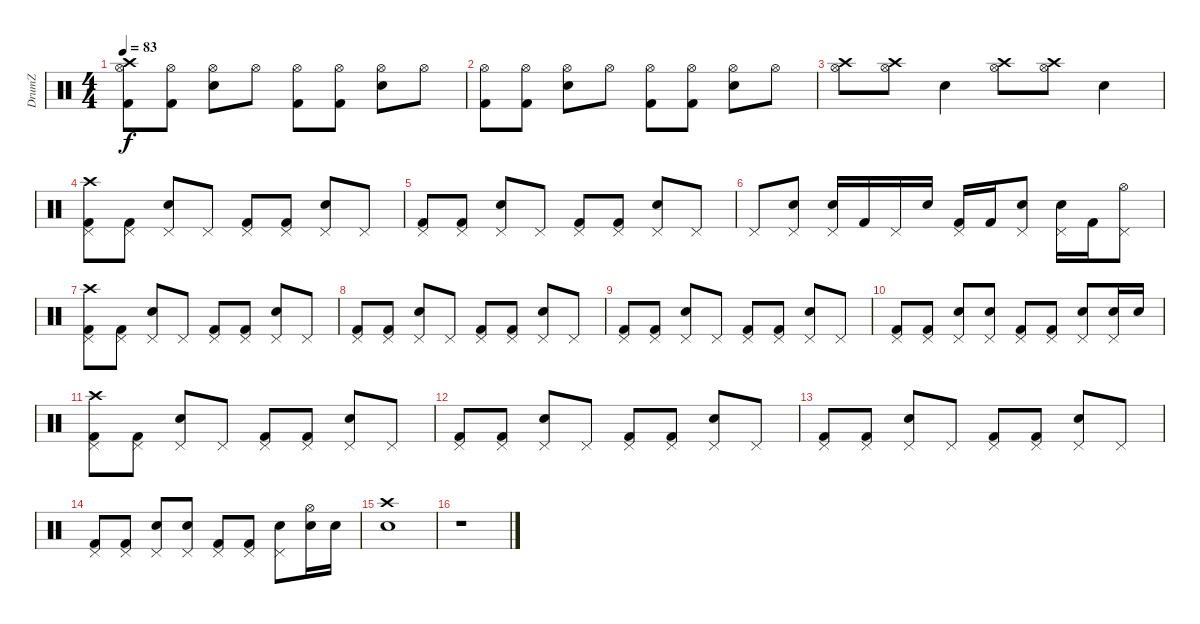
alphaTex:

\track ("DrumZ" "DrumZ") {instrument percussion}
\staff {score}
\articulation defaults
\ts (4 4)
\tempo 83
\clef neutral
\ks c
("Hi-Hat (open)" "Crash high (hit)" "Kick (hit) 2").8{dy f} ("Hi-Hat (open)" "Kick (hit) 2").8 ("Hi-Hat (open)" "Electric Snare (hit)").8 "Hi-Hat (open)".8 ("Hi-Hat (open)" "Kick (hit) 2").8 ("Hi-Hat (open)" "Kick (hit) 2").8 ("Hi-Hat (open)" "Electric Snare (hit)").8 "Hi-Hat (open)".8 |
("Hi-Hat (open)" "Kick (hit) 2").8 ("Hi-Hat (open)" "Kick (hit) 2").8 ("Hi-Hat (open)" "Electric Snare (hit)").8 "Hi-Hat (open)".8 ("Hi-Hat (open)" "Kick (hit) 2").8 ("Hi-Hat (open)" "Kick (hit) 2").8 ("Hi-Hat (open)" "Electric Snare (hit)").8 "Hi-Hat (open)".8 |
("Crash high (hit)" "Hi-Hat (open)").8 ("Crash high (hit)" "Hi-Hat (open)").8 "Electric Snare (hit)".4 ("Crash high (hit)" "Hi-Hat (open)").8 ("Crash high (hit)" "Hi-Hat (open)").8 "Electric Snare (hit)".4 |
("Pedal Hi-Hat (hit)" "Crash high (hit)" "Kick (hit) 2").8 ("Pedal Hi-Hat (hit)" "Kick (hit) 2").8 ("Pedal Hi-Hat (hit)" "Electric Snare (hit)").8 "Pedal Hi-Hat (hit)".8 ("Pedal Hi-Hat (hit)" "Kick (hit) 2").8 ("Pedal Hi-Hat (hit)" "Kick (hit) 2").8 ("Pedal Hi-Hat (hit)" "Electric Snare (hit)").8 "Pedal Hi-Hat (hit)".8 |
("Pedal Hi-Hat (hit)" "Kick (hit) 2").8 ("Pedal Hi-Hat (hit)" "Kick (hit) 2").8 ("Pedal Hi-Hat (hit)" "Electric Snare (hit)").8 "Pedal Hi-Hat (hit)".8 ("Pedal Hi-Hat (hit)" "Kick (hit) 2").8 ("Pedal Hi-Hat (hit)" "Kick (hit) 2").8 ("Pedal Hi-Hat (hit)" "Electric Snare (hit)").8 "Pedal Hi-Hat (hit)".8 |
"Pedal Hi-Hat (hit)".8 ("Pedal Hi-Hat (hit)" "Electric Snare (hit)").8 ("Pedal Hi-Hat (hit)" "Electric Snare (hit)").16 "Kick (hit) 2".16 "Pedal Hi-Hat (hit)".16 "Electric Snare (hit)".16 ("Pedal Hi-Hat (hit)" "Kick (hit) 2").16 "Kick (hit) 2".16 ("Pedal Hi-Hat (hit)" "Electric Snare (hit)").8 ("Pedal Hi-Hat (hit)" "Electric Snare (hit)").16 "Kick (hit) 2".16 ("Pedal Hi-Hat (hit)" "Hi-Hat (open)").8 |
("Pedal Hi-Hat (hit)" "Crash high (hit)" "Kick (hit) 2").8 ("Pedal Hi-Hat (hit)" "Kick (hit) 2").8 ("Pedal Hi-Hat (hit)" "Electric Snare (hit)").8 "Pedal Hi-Hat (hit)".8 ("Pedal Hi-Hat (hit)" "Kick (hit) 2").8 ("Pedal Hi-Hat (hit)" "Kick (hit) 2").8 ("Pedal Hi-Hat (hit)" "Electric Snare (hit)").8 "Pedal Hi-Hat (hit)".8 |
("Pedal Hi-Hat (hit)" "Kick (hit) 2").8 ("Pedal Hi-Hat (hit)" "Kick (hit) 2").8 ("Pedal Hi-Hat (hit)" "Electric Snare (hit)").8 "Pedal Hi-Hat (hit)".8 ("Pedal Hi-Hat (hit)" "Kick (hit) 2").8 ("Pedal Hi-Hat (hit)" "Kick (hit) 2").8 ("Pedal Hi-Hat (hit)" "Electric Snare (hit)").8 "Pedal Hi-Hat (hit)".8 |
("Pedal Hi-Hat (hit)" "Kick (hit) 2").8 ("Pedal Hi-Hat (hit)" "Kick (hit) 2").8 ("Pedal Hi-Hat (hit)" "Electric Snare (hit)").8 "Pedal Hi-Hat (hit)".8 ("Pedal Hi-Hat (hit)" "Kick (hit) 2").8 ("Pedal Hi-Hat (hit)" "Kick (hit) 2").8 ("Pedal Hi-Hat (hit)" "Electric Snare (hit)").8 "Pedal Hi-Hat (hit)".8 |
("Pedal Hi-Hat (hit)" "Kick (hit) 2").8 ("Pedal Hi-Hat (hit)" "Kick (hit) 2").8 ("Pedal Hi-Hat (hit)" "Electric Snare (hit)").8 ("Pedal Hi-Hat (hit)" "Electric Snare (hit)").8 ("Pedal Hi-Hat (hit)" "Kick (hit) 2").8 ("Pedal Hi-Hat (hit)" "Kick (hit) 2").8 ("Pedal Hi-Hat (hit)" "Electric Snare (hit)").8 ("Pedal Hi-Hat (hit)" "Electric Snare (hit)").16 "Electric Snare (hit)".16 |
("Pedal Hi-Hat (hit)" "Crash high (hit)" "Kick (hit) 2").8 ("Pedal Hi-Hat (hit)" "Kick (hit) 2").8 ("Pedal Hi-Hat (hit)" "Electric Snare (hit)").8 "Pedal Hi-Hat (hit)".8 ("Pedal Hi-Hat (hit)" "Kick (hit) 2").8 ("Pedal Hi-Hat (hit)" "Kick (hit) 2").8 ("Pedal Hi-Hat (hit)" "Electric Snare (hit)").8 "Pedal Hi-Hat (hit)".8 |
("Pedal Hi-Hat (hit)" "Kick (hit) 2").8 ("Pedal Hi-Hat (hit)" "Kick (hit) 2").8 ("Pedal Hi-Hat (hit)" "Electric Snare (hit)").8 "Pedal Hi-Hat (hit)".8 ("Pedal Hi-Hat (hit)" "Kick (hit) 2").8 ("Pedal Hi-Hat (hit)" "Kick (hit) 2").8 ("Pedal Hi-Hat (hit)" "Electric Snare (hit)").8 "Pedal Hi-Hat (hit)".8 |
("Pedal Hi-Hat (hit)" "Kick (hit) 2").8 ("Pedal Hi-Hat (hit)" "Kick (hit) 2").8 ("Pedal Hi-Hat (hit)" "Electric Snare (hit)").8 "Pedal Hi-Hat (hit)".8 ("Pedal Hi-Hat (hit)" "Kick (hit) 2").8 ("Pedal Hi-Hat (hit)" "Kick (hit) 2").8 ("Pedal Hi-Hat (hit)" "Electric Snare (hit)").8 "Pedal Hi-Hat (hit)".8 |
("Pedal Hi-Hat (hit)" "Kick (hit) 2").8 ("Pedal Hi-Hat (hit)" "Kick (hit) 2").8 ("Pedal Hi-Hat (hit)" "Electric Snare (hit)").8 ("Pedal Hi-Hat (hit)" "Electric Snare (hit)").8 ("Pedal Hi-Hat (hit)" "Kick (hit) 2").8 ("Pedal Hi-Hat (hit)" "Kick (hit) 2").8 ("Pedal Hi-Hat (hit)" "Electric Snare (hit)").8 ("Hi-Hat (open)" "Electric Snare (hit)").16 "Electric Snare (hit)".16 |
("Crash high (hit)" "Electric Snare (hit)").1 |
r.1
